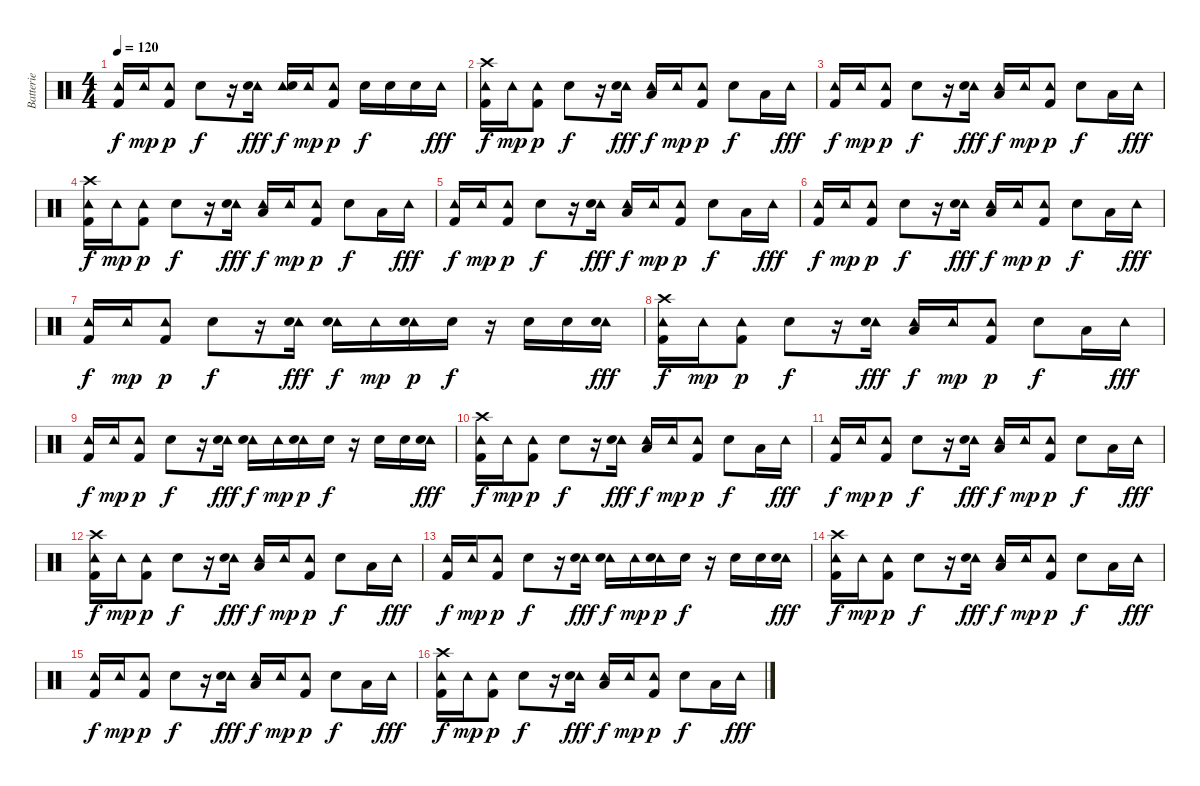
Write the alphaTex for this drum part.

\track ("Batterie" "Batterie") {instrument percussion}
\staff {score}
\articulation defaults
\ts (4 4)
\tempo 120
\clef neutral
\ks c
("Tambourine (hit)" "Kick (hit) 2").16{dy f} "Tambourine (hit)".16{dy mp} ("Tambourine (hit)" "Kick (hit) 2").8{dy p} "Electric Snare (hit)".8{dy f} r.16 ("Tambourine (hit)" "Electric Snare (hit)").16{dy fff} ("Tambourine (hit)" "Electric Snare (hit)").16{dy f} "Tambourine (hit)".16{dy mp} ("Tambourine (hit)" "Kick (hit) 2").8{dy p} "Electric Snare (hit)".16{dy f} "Electric Snare (hit)".16 "Electric Snare (hit)".16 "Tambourine (hit)".16{dy fff} |
("Tambourine (hit)" "Kick (hit) 2" "Crash high (hit)").16{dy f} "Tambourine (hit)".16{dy mp} ("Tambourine (hit)" "Kick (hit) 2").8{dy p} "Electric Snare (hit)".8{dy f} r.16 ("Tambourine (hit)" "Electric Snare (hit)").16{dy fff} ("Tambourine (hit)" "Low Tom (hit)").16{dy f} "Tambourine (hit)".16{dy mp} ("Tambourine (hit)" "Kick (hit) 2").8{dy p} "Electric Snare (hit)".8{dy f} "Low Tom (hit)".16 "Tambourine (hit)".16{dy fff} |
("Tambourine (hit)" "Kick (hit) 2").16{dy f} "Tambourine (hit)".16{dy mp} ("Tambourine (hit)" "Kick (hit) 2").8{dy p} "Electric Snare (hit)".8{dy f} r.16 ("Tambourine (hit)" "Electric Snare (hit)").16{dy fff} ("Tambourine (hit)" "Low Tom (hit)").16{dy f} "Tambourine (hit)".16{dy mp} ("Tambourine (hit)" "Kick (hit) 2").8{dy p} "Electric Snare (hit)".8{dy f} "Low Tom (hit)".16 "Tambourine (hit)".16{dy fff} |
("Tambourine (hit)" "Kick (hit) 2" "Crash high (hit)").16{dy f} "Tambourine (hit)".16{dy mp} ("Tambourine (hit)" "Kick (hit) 2").8{dy p} "Electric Snare (hit)".8{dy f} r.16 ("Tambourine (hit)" "Electric Snare (hit)").16{dy fff} ("Tambourine (hit)" "Low Tom (hit)").16{dy f} "Tambourine (hit)".16{dy mp} ("Tambourine (hit)" "Kick (hit) 2").8{dy p} "Electric Snare (hit)".8{dy f} "Low Tom (hit)".16 "Tambourine (hit)".16{dy fff} |
("Tambourine (hit)" "Kick (hit) 2").16{dy f} "Tambourine (hit)".16{dy mp} ("Tambourine (hit)" "Kick (hit) 2").8{dy p} "Electric Snare (hit)".8{dy f} r.16 ("Tambourine (hit)" "Electric Snare (hit)").16{dy fff} ("Tambourine (hit)" "Low Tom (hit)").16{dy f} "Tambourine (hit)".16{dy mp} ("Tambourine (hit)" "Kick (hit) 2").8{dy p} "Electric Snare (hit)".8{dy f} "Low Tom (hit)".16 "Tambourine (hit)".16{dy fff} |
("Tambourine (hit)" "Kick (hit) 2").16{dy f} "Tambourine (hit)".16{dy mp} ("Tambourine (hit)" "Kick (hit) 2").8{dy p} "Electric Snare (hit)".8{dy f} r.16 ("Tambourine (hit)" "Electric Snare (hit)").16{dy fff} ("Tambourine (hit)" "Low Tom (hit)").16{dy f} "Tambourine (hit)".16{dy mp} ("Tambourine (hit)" "Kick (hit) 2").8{dy p} "Electric Snare (hit)".8{dy f} "Low Tom (hit)".16 "Tambourine (hit)".16{dy fff} |
("Tambourine (hit)" "Kick (hit) 2").16{dy f} "Tambourine (hit)".16{dy mp} ("Tambourine (hit)" "Kick (hit) 2").8{dy p} "Electric Snare (hit)".8{dy f} r.16 ("Tambourine (hit)" "Electric Snare (hit)").16{dy fff} ("Tambourine (hit)" "Electric Snare (hit)").16{dy f} "Tambourine (hit)".16{dy mp} ("Tambourine (hit)" "Electric Snare (hit)").16{dy p} "Electric Snare (hit)".16{dy f} r.16 "Electric Snare (hit)".16 "Electric Snare (hit)".16 ("Tambourine (hit)" "Electric Snare (hit)").16{dy fff} |
("Tambourine (hit)" "Kick (hit) 2" "Crash high (hit)").16{dy f} "Tambourine (hit)".16{dy mp} ("Tambourine (hit)" "Kick (hit) 2").8{dy p} "Electric Snare (hit)".8{dy f} r.16 ("Tambourine (hit)" "Electric Snare (hit)").16{dy fff} ("Tambourine (hit)" "Low Tom (hit)").16{dy f} "Tambourine (hit)".16{dy mp} ("Tambourine (hit)" "Kick (hit) 2").8{dy p} "Electric Snare (hit)".8{dy f} "Low Tom (hit)".16 "Tambourine (hit)".16{dy fff} |
("Tambourine (hit)" "Kick (hit) 2").16{dy f} "Tambourine (hit)".16{dy mp} ("Tambourine (hit)" "Kick (hit) 2").8{dy p} "Electric Snare (hit)".8{dy f} r.16 ("Tambourine (hit)" "Electric Snare (hit)").16{dy fff} ("Tambourine (hit)" "Electric Snare (hit)").16{dy f} "Tambourine (hit)".16{dy mp} ("Tambourine (hit)" "Electric Snare (hit)").16{dy p} "Electric Snare (hit)".16{dy f} r.16 "Electric Snare (hit)".16 "Electric Snare (hit)".16 ("Tambourine (hit)" "Electric Snare (hit)").16{dy fff} |
("Tambourine (hit)" "Kick (hit) 2" "Crash high (hit)").16{dy f} "Tambourine (hit)".16{dy mp} ("Tambourine (hit)" "Kick (hit) 2").8{dy p} "Electric Snare (hit)".8{dy f} r.16 ("Tambourine (hit)" "Electric Snare (hit)").16{dy fff} ("Tambourine (hit)" "Low Tom (hit)").16{dy f} "Tambourine (hit)".16{dy mp} ("Tambourine (hit)" "Kick (hit) 2").8{dy p} "Electric Snare (hit)".8{dy f} "Low Tom (hit)".16 "Tambourine (hit)".16{dy fff} |
("Tambourine (hit)" "Kick (hit) 2").16{dy f} "Tambourine (hit)".16{dy mp} ("Tambourine (hit)" "Kick (hit) 2").8{dy p} "Electric Snare (hit)".8{dy f} r.16 ("Tambourine (hit)" "Electric Snare (hit)").16{dy fff} ("Tambourine (hit)" "Low Tom (hit)").16{dy f} "Tambourine (hit)".16{dy mp} ("Tambourine (hit)" "Kick (hit) 2").8{dy p} "Electric Snare (hit)".8{dy f} "Low Tom (hit)".16 "Tambourine (hit)".16{dy fff} |
("Tambourine (hit)" "Kick (hit) 2" "Crash high (hit)").16{dy f} "Tambourine (hit)".16{dy mp} ("Tambourine (hit)" "Kick (hit) 2").8{dy p} "Electric Snare (hit)".8{dy f} r.16 ("Tambourine (hit)" "Electric Snare (hit)").16{dy fff} ("Tambourine (hit)" "Low Tom (hit)").16{dy f} "Tambourine (hit)".16{dy mp} ("Tambourine (hit)" "Kick (hit) 2").8{dy p} "Electric Snare (hit)".8{dy f} "Low Tom (hit)".16 "Tambourine (hit)".16{dy fff} |
("Tambourine (hit)" "Kick (hit) 2").16{dy f} "Tambourine (hit)".16{dy mp} ("Tambourine (hit)" "Kick (hit) 2").8{dy p} "Electric Snare (hit)".8{dy f} r.16 ("Tambourine (hit)" "Electric Snare (hit)").16{dy fff} ("Tambourine (hit)" "Electric Snare (hit)").16{dy f} "Tambourine (hit)".16{dy mp} ("Tambourine (hit)" "Electric Snare (hit)").16{dy p} "Electric Snare (hit)".16{dy f} r.16 "Electric Snare (hit)".16 "Electric Snare (hit)".16 ("Tambourine (hit)" "Electric Snare (hit)").16{dy fff} |
("Tambourine (hit)" "Kick (hit) 2" "Crash high (hit)").16{dy f} "Tambourine (hit)".16{dy mp} ("Tambourine (hit)" "Kick (hit) 2").8{dy p} "Electric Snare (hit)".8{dy f} r.16 ("Tambourine (hit)" "Electric Snare (hit)").16{dy fff} ("Tambourine (hit)" "Low Tom (hit)").16{dy f} "Tambourine (hit)".16{dy mp} ("Tambourine (hit)" "Kick (hit) 2").8{dy p} "Electric Snare (hit)".8{dy f} "Low Tom (hit)".16 "Tambourine (hit)".16{dy fff} |
("Tambourine (hit)" "Kick (hit) 2").16{dy f} "Tambourine (hit)".16{dy mp} ("Tambourine (hit)" "Kick (hit) 2").8{dy p} "Electric Snare (hit)".8{dy f} r.16 ("Tambourine (hit)" "Electric Snare (hit)").16{dy fff} ("Tambourine (hit)" "Low Tom (hit)").16{dy f} "Tambourine (hit)".16{dy mp} ("Tambourine (hit)" "Kick (hit) 2").8{dy p} "Electric Snare (hit)".8{dy f} "Low Tom (hit)".16 "Tambourine (hit)".16{dy fff} |
("Tambourine (hit)" "Kick (hit) 2" "Crash high (hit)").16{dy f} "Tambourine (hit)".16{dy mp} ("Tambourine (hit)" "Kick (hit) 2").8{dy p} "Electric Snare (hit)".8{dy f} r.16 ("Tambourine (hit)" "Electric Snare (hit)").16{dy fff} ("Tambourine (hit)" "Low Tom (hit)").16{dy f} "Tambourine (hit)".16{dy mp} ("Tambourine (hit)" "Kick (hit) 2").8{dy p} "Electric Snare (hit)".8{dy f} "Low Tom (hit)".16 "Tambourine (hit)".16{dy fff}
